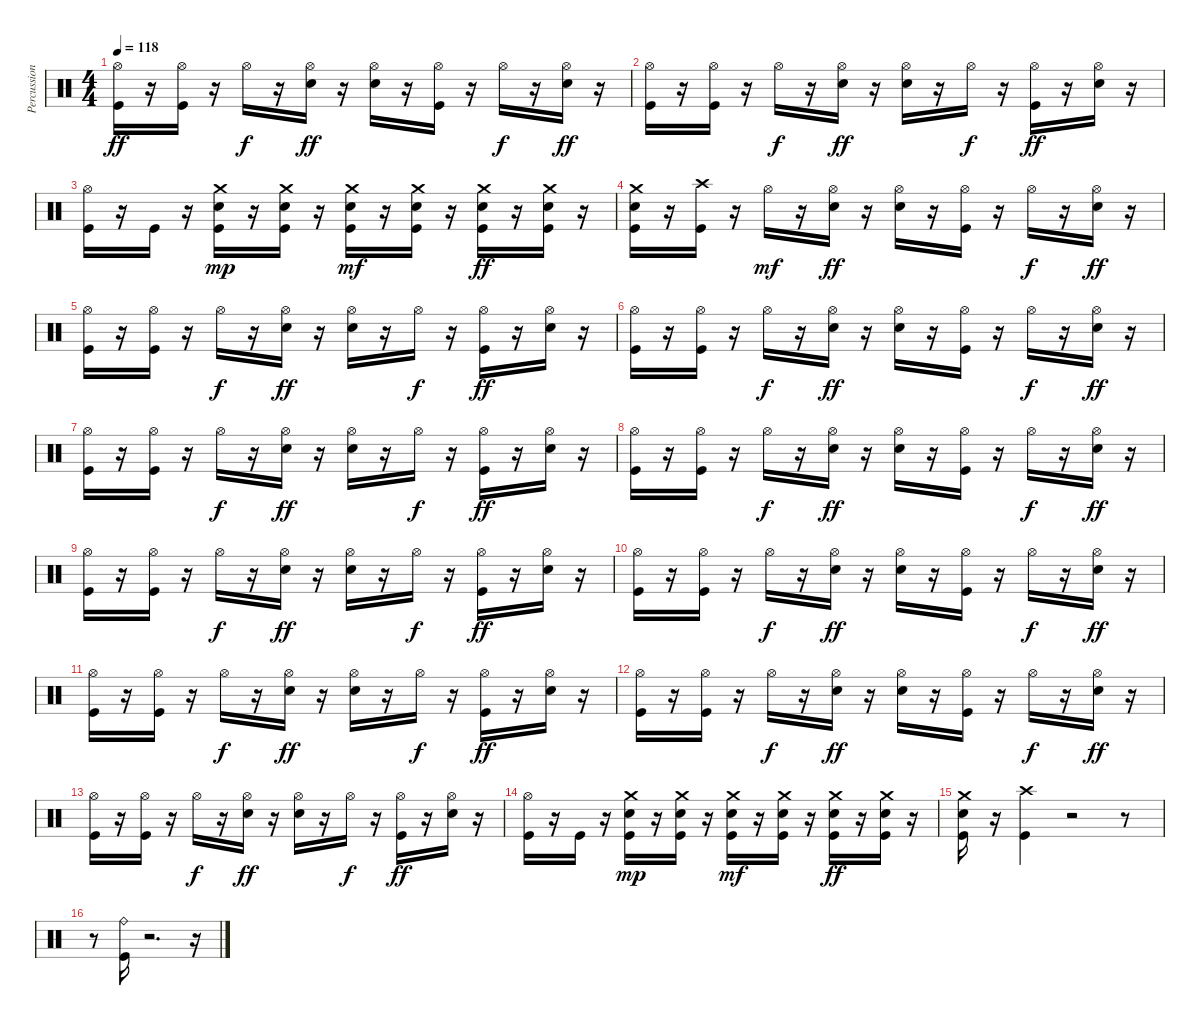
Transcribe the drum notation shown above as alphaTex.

\track ("Percussion" "Percussion") {instrument percussion}
\staff {score}
\articulation defaults
\ts (4 4)
\tempo 118
\clef neutral
\ks c
("Hi-Hat (open)" "Kick (hit)").16{dy ff} r.16 ("Kick (hit)" "Hi-Hat (open)").16 r.16 "Hi-Hat (open)".16{dy f} r.16 ("Hi-Hat (open)" "Snare (hit) 2").16{dy ff} r.16 ("Hi-Hat (open)" "Snare (hit) 2").16 r.16 ("Hi-Hat (open)" "Kick (hit)").16 r.16 "Hi-Hat (open)".16{dy f} r.16 ("Hi-Hat (open)" "Snare (hit) 2").16{dy ff} r.16 |
("Hi-Hat (open)" "Kick (hit)").16 r.16 ("Kick (hit)" "Hi-Hat (open)").16 r.16 "Hi-Hat (open)".16{dy f} r.16 ("Hi-Hat (open)" "Snare (hit) 2").16{dy ff} r.16 ("Hi-Hat (open)" "Snare (hit) 2").16 r.16 "Hi-Hat (open)".16{dy f} r.16 ("Hi-Hat (open)" "Kick (hit)").16{dy ff} r.16 ("Hi-Hat (open)" "Snare (hit) 2").16 r.16 |
("Hi-Hat (open)" "Kick (hit)").16 r.16 "Kick (hit)".16 r.16 ("Electric Snare (hit)" "Kick (hit)" "Crash medium (hit)").16{dy mp} r.16 ("Electric Snare (hit)" "Kick (hit)" "Crash medium (hit)").16 r.16 ("Electric Snare (hit)" "Kick (hit)" "Crash medium (hit)").16{dy mf} r.16 ("Electric Snare (hit)" "Kick (hit)" "Crash medium (hit)").16 r.16 ("Electric Snare (hit)" "Kick (hit)" "Crash medium (hit)").16{dy ff} r.16 ("Electric Snare (hit)" "Kick (hit)" "Crash medium (hit)").16 r.16 |
("Electric Snare (hit)" "Kick (hit)" "Crash medium (hit)").16 r.16 ("Kick (hit)" "Crash high (hit)").16 r.16 "Hi-Hat (open)".16{dy mf} r.16 ("Hi-Hat (open)" "Snare (hit) 2").16{dy ff} r.16 ("Hi-Hat (open)" "Snare (hit) 2").16 r.16 ("Hi-Hat (open)" "Kick (hit)").16 r.16 "Hi-Hat (open)".16{dy f} r.16 ("Hi-Hat (open)" "Snare (hit) 2").16{dy ff} r.16 |
("Hi-Hat (open)" "Kick (hit)").16 r.16 ("Kick (hit)" "Hi-Hat (open)").16 r.16 "Hi-Hat (open)".16{dy f} r.16 ("Hi-Hat (open)" "Snare (hit) 2").16{dy ff} r.16 ("Hi-Hat (open)" "Snare (hit) 2").16 r.16 "Hi-Hat (open)".16{dy f} r.16 ("Hi-Hat (open)" "Kick (hit)").16{dy ff} r.16 ("Hi-Hat (open)" "Snare (hit) 2").16 r.16 |
("Hi-Hat (open)" "Kick (hit)").16 r.16 ("Kick (hit)" "Hi-Hat (open)").16 r.16 "Hi-Hat (open)".16{dy f} r.16 ("Hi-Hat (open)" "Snare (hit) 2").16{dy ff} r.16 ("Hi-Hat (open)" "Snare (hit) 2").16 r.16 ("Hi-Hat (open)" "Kick (hit)").16 r.16 "Hi-Hat (open)".16{dy f} r.16 ("Hi-Hat (open)" "Snare (hit) 2").16{dy ff} r.16 |
("Hi-Hat (open)" "Kick (hit)").16 r.16 ("Kick (hit)" "Hi-Hat (open)").16 r.16 "Hi-Hat (open)".16{dy f} r.16 ("Hi-Hat (open)" "Snare (hit) 2").16{dy ff} r.16 ("Hi-Hat (open)" "Snare (hit) 2").16 r.16 "Hi-Hat (open)".16{dy f} r.16 ("Hi-Hat (open)" "Kick (hit)").16{dy ff} r.16 ("Hi-Hat (open)" "Snare (hit) 2").16 r.16 |
("Hi-Hat (open)" "Kick (hit)").16 r.16 ("Kick (hit)" "Hi-Hat (open)").16 r.16 "Hi-Hat (open)".16{dy f} r.16 ("Hi-Hat (open)" "Snare (hit) 2").16{dy ff} r.16 ("Hi-Hat (open)" "Snare (hit) 2").16 r.16 ("Hi-Hat (open)" "Kick (hit)").16 r.16 "Hi-Hat (open)".16{dy f} r.16 ("Hi-Hat (open)" "Snare (hit) 2").16{dy ff} r.16 |
("Hi-Hat (open)" "Kick (hit)").16 r.16 ("Kick (hit)" "Hi-Hat (open)").16 r.16 "Hi-Hat (open)".16{dy f} r.16 ("Hi-Hat (open)" "Snare (hit) 2").16{dy ff} r.16 ("Hi-Hat (open)" "Snare (hit) 2").16 r.16 "Hi-Hat (open)".16{dy f} r.16 ("Hi-Hat (open)" "Kick (hit)").16{dy ff} r.16 ("Hi-Hat (open)" "Snare (hit) 2").16 r.16 |
("Hi-Hat (open)" "Kick (hit)").16 r.16 ("Kick (hit)" "Hi-Hat (open)").16 r.16 "Hi-Hat (open)".16{dy f} r.16 ("Hi-Hat (open)" "Snare (hit) 2").16{dy ff} r.16 ("Hi-Hat (open)" "Snare (hit) 2").16 r.16 ("Hi-Hat (open)" "Kick (hit)").16 r.16 "Hi-Hat (open)".16{dy f} r.16 ("Hi-Hat (open)" "Snare (hit) 2").16{dy ff} r.16 |
("Hi-Hat (open)" "Kick (hit)").16 r.16 ("Kick (hit)" "Hi-Hat (open)").16 r.16 "Hi-Hat (open)".16{dy f} r.16 ("Hi-Hat (open)" "Snare (hit) 2").16{dy ff} r.16 ("Hi-Hat (open)" "Snare (hit) 2").16 r.16 "Hi-Hat (open)".16{dy f} r.16 ("Hi-Hat (open)" "Kick (hit)").16{dy ff} r.16 ("Hi-Hat (open)" "Snare (hit) 2").16 r.16 |
("Hi-Hat (open)" "Kick (hit)").16 r.16 ("Kick (hit)" "Hi-Hat (open)").16 r.16 "Hi-Hat (open)".16{dy f} r.16 ("Hi-Hat (open)" "Snare (hit) 2").16{dy ff} r.16 ("Hi-Hat (open)" "Snare (hit) 2").16 r.16 ("Hi-Hat (open)" "Kick (hit)").16 r.16 "Hi-Hat (open)".16{dy f} r.16 ("Hi-Hat (open)" "Snare (hit) 2").16{dy ff} r.16 |
("Hi-Hat (open)" "Kick (hit)").16 r.16 ("Kick (hit)" "Hi-Hat (open)").16 r.16 "Hi-Hat (open)".16{dy f} r.16 ("Hi-Hat (open)" "Snare (hit) 2").16{dy ff} r.16 ("Hi-Hat (open)" "Snare (hit) 2").16 r.16 "Hi-Hat (open)".16{dy f} r.16 ("Hi-Hat (open)" "Kick (hit)").16{dy ff} r.16 ("Hi-Hat (open)" "Snare (hit) 2").16 r.16 |
("Hi-Hat (open)" "Kick (hit)").16 r.16 "Kick (hit)".16 r.16 ("Electric Snare (hit)" "Kick (hit)" "Crash medium (hit)").16{dy mp} r.16 ("Electric Snare (hit)" "Kick (hit)" "Crash medium (hit)").16 r.16 ("Electric Snare (hit)" "Kick (hit)" "Crash medium (hit)").16{dy mf} r.16 ("Electric Snare (hit)" "Kick (hit)" "Crash medium (hit)").16 r.16 ("Electric Snare (hit)" "Kick (hit)" "Crash medium (hit)").16{dy ff} r.16 ("Electric Snare (hit)" "Kick (hit)" "Crash medium (hit)").16 r.16 |
("Electric Snare (hit)" "Kick (hit)" "Crash medium (hit)").16 r.16 ("Crash high (hit)" "Kick (hit)").4 r.2 r.8 |
r.8 ("Kick (hit)" "Ride (bell)").16 r.2{d} r.16
